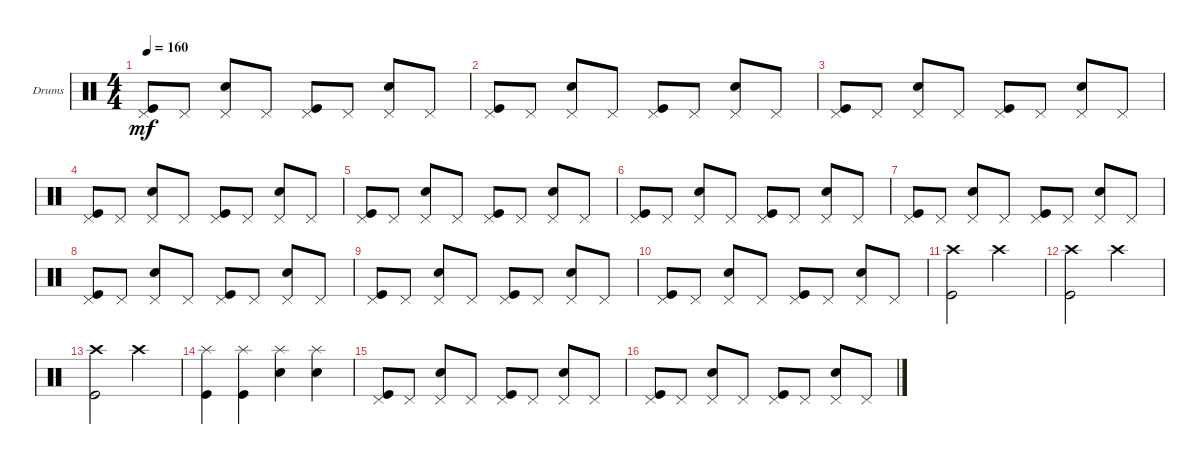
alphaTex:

\defaultSystemsLayout 4
\bracketExtendMode groupsimilarinstruments
\firstSystemTrackNameOrientation horizontal
\otherSystemsTrackNameOrientation horizontal
\track ("Drums" "Drums") {instrument percussion}
\staff {score}
\articulation defaults
\ts (4 4)
\tempo 160
\clef neutral
\ks c
("Pedal Hi-Hat (hit)" "Kick (hit)").8{dy mf} "Pedal Hi-Hat (hit)".8 ("Pedal Hi-Hat (hit)" "Snare (hit) 2").8 "Pedal Hi-Hat (hit)".8 ("Pedal Hi-Hat (hit)" "Kick (hit)").8 "Pedal Hi-Hat (hit)".8 ("Pedal Hi-Hat (hit)" "Snare (hit) 2").8 "Pedal Hi-Hat (hit)".8 |
("Pedal Hi-Hat (hit)" "Kick (hit)").8 "Pedal Hi-Hat (hit)".8 ("Pedal Hi-Hat (hit)" "Snare (hit) 2").8 "Pedal Hi-Hat (hit)".8 ("Pedal Hi-Hat (hit)" "Kick (hit)").8 "Pedal Hi-Hat (hit)".8 ("Pedal Hi-Hat (hit)" "Snare (hit) 2").8 "Pedal Hi-Hat (hit)".8 |
("Pedal Hi-Hat (hit)" "Kick (hit)").8 "Pedal Hi-Hat (hit)".8 ("Pedal Hi-Hat (hit)" "Snare (hit) 2").8 "Pedal Hi-Hat (hit)".8 ("Pedal Hi-Hat (hit)" "Kick (hit)").8 "Pedal Hi-Hat (hit)".8 ("Pedal Hi-Hat (hit)" "Snare (hit) 2").8 "Pedal Hi-Hat (hit)".8 |
("Pedal Hi-Hat (hit)" "Kick (hit)").8 "Pedal Hi-Hat (hit)".8 ("Pedal Hi-Hat (hit)" "Snare (hit) 2").8 "Pedal Hi-Hat (hit)".8 ("Pedal Hi-Hat (hit)" "Kick (hit)").8 "Pedal Hi-Hat (hit)".8 ("Pedal Hi-Hat (hit)" "Snare (hit) 2").8 "Pedal Hi-Hat (hit)".8 |
("Pedal Hi-Hat (hit)" "Kick (hit)").8 "Pedal Hi-Hat (hit)".8 ("Pedal Hi-Hat (hit)" "Snare (hit) 2").8 "Pedal Hi-Hat (hit)".8 ("Pedal Hi-Hat (hit)" "Kick (hit)").8 "Pedal Hi-Hat (hit)".8 ("Pedal Hi-Hat (hit)" "Snare (hit) 2").8 "Pedal Hi-Hat (hit)".8 |
("Pedal Hi-Hat (hit)" "Kick (hit)").8 "Pedal Hi-Hat (hit)".8 ("Pedal Hi-Hat (hit)" "Snare (hit) 2").8 "Pedal Hi-Hat (hit)".8 ("Pedal Hi-Hat (hit)" "Kick (hit)").8 "Pedal Hi-Hat (hit)".8 ("Pedal Hi-Hat (hit)" "Snare (hit) 2").8 "Pedal Hi-Hat (hit)".8 |
("Pedal Hi-Hat (hit)" "Kick (hit)").8 "Pedal Hi-Hat (hit)".8 ("Pedal Hi-Hat (hit)" "Snare (hit) 2").8 "Pedal Hi-Hat (hit)".8 ("Pedal Hi-Hat (hit)" "Kick (hit)").8 "Pedal Hi-Hat (hit)".8 ("Pedal Hi-Hat (hit)" "Snare (hit) 2").8 "Pedal Hi-Hat (hit)".8 |
("Pedal Hi-Hat (hit)" "Kick (hit)").8 "Pedal Hi-Hat (hit)".8 ("Pedal Hi-Hat (hit)" "Snare (hit) 2").8 "Pedal Hi-Hat (hit)".8 ("Pedal Hi-Hat (hit)" "Kick (hit)").8 "Pedal Hi-Hat (hit)".8 ("Pedal Hi-Hat (hit)" "Snare (hit) 2").8 "Pedal Hi-Hat (hit)".8 |
("Pedal Hi-Hat (hit)" "Kick (hit)").8 "Pedal Hi-Hat (hit)".8 ("Pedal Hi-Hat (hit)" "Snare (hit) 2").8 "Pedal Hi-Hat (hit)".8 ("Pedal Hi-Hat (hit)" "Kick (hit)").8 "Pedal Hi-Hat (hit)".8 ("Pedal Hi-Hat (hit)" "Snare (hit) 2").8 "Pedal Hi-Hat (hit)".8 |
("Pedal Hi-Hat (hit)" "Kick (hit)").8 "Pedal Hi-Hat (hit)".8 ("Pedal Hi-Hat (hit)" "Snare (hit) 2").8 "Pedal Hi-Hat (hit)".8 ("Pedal Hi-Hat (hit)" "Kick (hit)").8 "Pedal Hi-Hat (hit)".8 ("Pedal Hi-Hat (hit)" "Snare (hit) 2").8 "Pedal Hi-Hat (hit)".8 |
("Crash high (hit)" "Kick (hit)").2 "Crash high (hit)".2 |
("Crash high (hit)" "Kick (hit)").2 "Crash high (hit)".2 |
("Crash high (hit)" "Kick (hit)").2 "Crash high (hit)".2 |
("Splash (hit)" "Kick (hit)").4 ("Splash (hit)" "Kick (hit)").4 ("Splash (hit)" "Snare (hit) 2").4 ("Splash (hit)" "Snare (hit) 2").4 |
("Pedal Hi-Hat (hit)" "Kick (hit)").8 "Pedal Hi-Hat (hit)".8 ("Pedal Hi-Hat (hit)" "Snare (hit) 2").8 "Pedal Hi-Hat (hit)".8 ("Pedal Hi-Hat (hit)" "Kick (hit)").8 "Pedal Hi-Hat (hit)".8 ("Pedal Hi-Hat (hit)" "Snare (hit) 2").8 "Pedal Hi-Hat (hit)".8 |
("Pedal Hi-Hat (hit)" "Kick (hit)").8 "Pedal Hi-Hat (hit)".8 ("Pedal Hi-Hat (hit)" "Snare (hit) 2").8 "Pedal Hi-Hat (hit)".8 ("Pedal Hi-Hat (hit)" "Kick (hit)").8 "Pedal Hi-Hat (hit)".8 ("Pedal Hi-Hat (hit)" "Snare (hit) 2").8 "Pedal Hi-Hat (hit)".8
